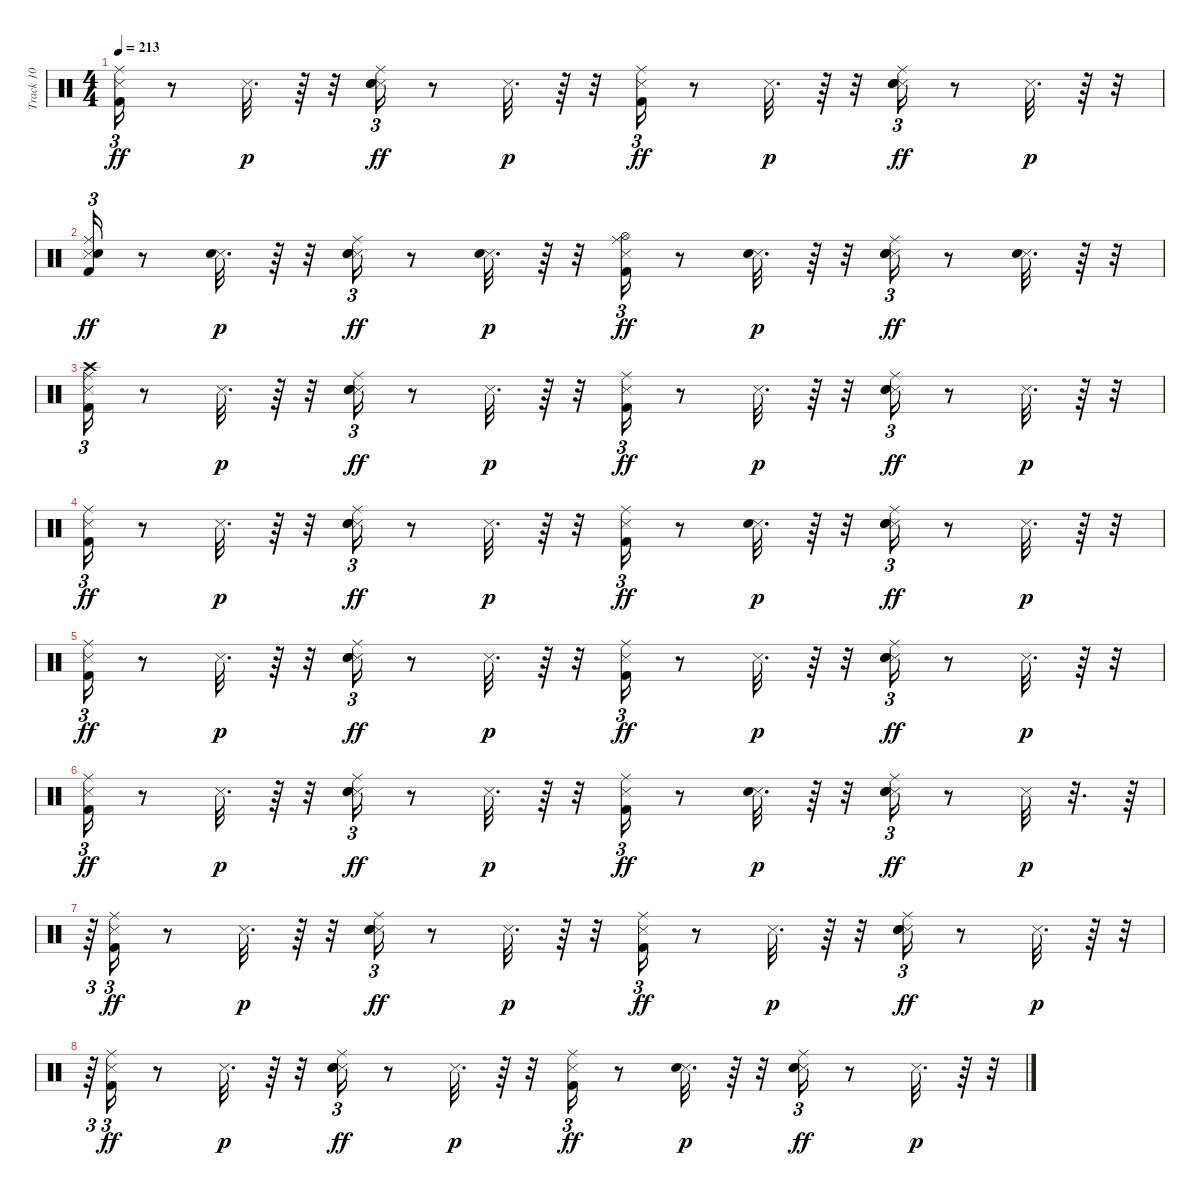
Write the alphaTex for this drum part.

\track ("Track 10" "Track 10") {instrument percussion}
\staff {score}
\articulation defaults
\ts (4 4)
\tempo 213
\clef neutral
\ks c
("Kick (hit) 2" "Snare (side stick) 3" "Ride (middle)").16{tu (3 2) dy ff} r.8 "Snare (side stick) 3".32{d dy p} r.64 r.32 ("Snare (side stick) 3" "Hand Clap (hit)" "Electric Snare (hit)" "Ride (middle)").16{tu (3 2) dy ff} r.8 "Snare (side stick) 3".32{d dy p} r.64 r.32 ("Kick (hit) 2" "Snare (side stick) 3" "Ride (middle)").16{tu (3 2) dy ff} r.8 "Snare (side stick) 3".32{d dy p} r.64 r.32 ("Snare (side stick) 3" "Hand Clap (hit)" "Electric Snare (hit)" "Ride (middle)").16{tu (3 2) dy ff} r.8 "Snare (side stick) 3".32{d dy p} r.64 r.32 |
("Kick (hit) 2" "Snare (side stick) 3" "Electric Snare (hit)" "Ride (middle)").16{tu (3 2) dy ff} r.8 ("Snare (side stick) 3" "Electric Snare (hit)").32{d dy p} r.64 r.32 ("Snare (side stick) 3" "Hand Clap (hit)" "Electric Snare (hit)" "Ride (middle)").16{tu (3 2) dy ff} r.8 ("Snare (side stick) 3" "Electric Snare (hit)").32{d dy p} r.64 r.32 ("Kick (hit) 2" "Snare (side stick) 3" "Hi-Hat (open)" "Ride (middle)").16{tu (3 2) dy ff} r.8 ("Snare (side stick) 3" "Electric Snare (hit)").32{d dy p} r.64 r.32 ("Snare (side stick) 3" "Hand Clap (hit)" "Electric Snare (hit)" "Ride (middle)").16{tu (3 2) dy ff} r.8 ("Snare (side stick) 3" "Electric Snare (hit)").32{d} r.64 r.32 |
("Kick (hit) 2" "Snare (side stick) 3" "Crash high (hit)" "Ride (middle)").16{tu (3 2)} r.8 "Snare (side stick) 3".32{d dy p} r.64 r.32 ("Snare (side stick) 3" "Hand Clap (hit)" "Electric Snare (hit)" "Ride (middle)").16{tu (3 2) dy ff} r.8 "Snare (side stick) 3".32{d dy p} r.64 r.32 ("Kick (hit) 2" "Snare (side stick) 3" "Ride (middle)").16{tu (3 2) dy ff} r.8 "Snare (side stick) 3".32{d dy p} r.64 r.32 ("Snare (side stick) 3" "Hand Clap (hit)" "Electric Snare (hit)" "Ride (middle)").16{tu (3 2) dy ff} r.8 "Snare (side stick) 3".32{d dy p} r.64 r.32 |
("Kick (hit) 2" "Snare (side stick) 3" "Ride (middle)").16{tu (3 2) dy ff} r.8 "Snare (side stick) 3".32{d dy p} r.64 r.32 ("Snare (side stick) 3" "Hand Clap (hit)" "Electric Snare (hit)" "Ride (middle)").16{tu (3 2) dy ff} r.8 "Snare (side stick) 3".32{d dy p} r.64 r.32 ("Kick (hit) 2" "Snare (side stick) 3" "Ride (middle)").16{tu (3 2) dy ff} r.8 ("Snare (side stick) 3" "Electric Snare (hit)").32{d dy p} r.64 r.32 ("Snare (side stick) 3" "Hand Clap (hit)" "Electric Snare (hit)" "Ride (middle)").16{tu (3 2) dy ff} r.8 "Snare (side stick) 3".32{d dy p} r.64 r.32 |
("Kick (hit) 2" "Snare (side stick) 3" "Ride (middle)").16{tu (3 2) dy ff} r.8 "Snare (side stick) 3".32{d dy p} r.64 r.32 ("Snare (side stick) 3" "Hand Clap (hit)" "Electric Snare (hit)" "Ride (middle)").16{tu (3 2) dy ff} r.8 "Snare (side stick) 3".32{d dy p} r.64 r.32 ("Kick (hit) 2" "Snare (side stick) 3" "Ride (middle)").16{tu (3 2) dy ff} r.8 "Snare (side stick) 3".32{d dy p} r.64 r.32 ("Snare (side stick) 3" "Hand Clap (hit)" "Electric Snare (hit)" "Ride (middle)").16{tu (3 2) dy ff} r.8 "Snare (side stick) 3".32{d dy p} r.64 r.32 |
("Kick (hit) 2" "Snare (side stick) 3" "Ride (middle)").16{tu (3 2) dy ff} r.8 "Snare (side stick) 3".32{d dy p} r.64 r.32 ("Snare (side stick) 3" "Hand Clap (hit)" "Electric Snare (hit)" "Ride (middle)").16{tu (3 2) dy ff} r.8 "Snare (side stick) 3".32{d dy p} r.64 r.32 ("Kick (hit) 2" "Snare (side stick) 3" "Ride (middle)").16{tu (3 2) dy ff} r.8 ("Snare (side stick) 3" "Electric Snare (hit)").32{d dy p} r.64 r.32 ("Snare (side stick) 3" "Hand Clap (hit)" "Electric Snare (hit)" "Ride (middle)").16{tu (3 2) dy ff} r.8 "Snare (side stick) 3".32{dy p} r.32{d} r.64 |
r.64{tu (3 2)} ("Kick (hit) 2" "Snare (side stick) 3" "Ride (middle)").16{tu (3 2) dy ff} r.8 "Snare (side stick) 3".32{d dy p} r.64 r.32 ("Snare (side stick) 3" "Hand Clap (hit)" "Electric Snare (hit)" "Ride (middle)").16{tu (3 2) dy ff} r.8 "Snare (side stick) 3".32{d dy p} r.64 r.32 ("Kick (hit) 2" "Snare (side stick) 3" "Ride (middle)").16{tu (3 2) dy ff} r.8 "Snare (side stick) 3".32{d dy p} r.64 r.32 ("Snare (side stick) 3" "Hand Clap (hit)" "Electric Snare (hit)" "Ride (middle)").16{tu (3 2) dy ff} r.8 "Snare (side stick) 3".32{d dy p} r.64 r.32{tu (3 2)} |
r.64{tu (3 2)} ("Kick (hit) 2" "Snare (side stick) 3" "Ride (middle)").16{tu (3 2) dy ff} r.8 "Snare (side stick) 3".32{d dy p} r.64 r.32 ("Snare (side stick) 3" "Hand Clap (hit)" "Electric Snare (hit)" "Ride (middle)").16{tu (3 2) dy ff} r.8 "Snare (side stick) 3".32{d dy p} r.64 r.32 ("Kick (hit) 2" "Snare (side stick) 3" "Ride (middle)").16{tu (3 2) dy ff} r.8 ("Snare (side stick) 3" "Electric Snare (hit)").32{d dy p} r.64 r.32 ("Snare (side stick) 3" "Hand Clap (hit)" "Electric Snare (hit)" "Ride (middle)").16{tu (3 2) dy ff} r.8 "Snare (side stick) 3".32{d dy p} r.64 r.32{tu (3 2)}
